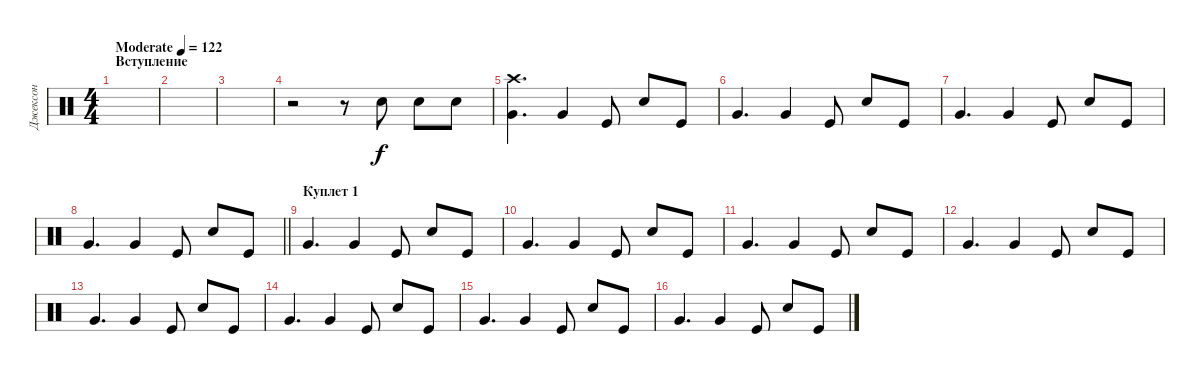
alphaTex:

\track ("Джексон" "Джексон") {instrument percussion}
\staff {score}
\articulation defaults
\ts (4 4)
\section ("" "Вступление")
\tempo (122 "Moderate")
\clef neutral
\ks c
|
|
|
r.2 r.8 "Snare (hit) 2".8 "Snare (hit) 2".8 "Snare (hit) 2".8 |
("Crash high (hit)" "Very Low Tom (hit)").4{d} "Very Low Tom (hit)".4 "Kick (hit)".8 "Snare (hit) 2".8 "Kick (hit)".8 |
"Very Low Tom (hit)".4{d} "Very Low Tom (hit)".4 "Kick (hit)".8 "Snare (hit) 2".8 "Kick (hit)".8 |
"Very Low Tom (hit)".4{d} "Very Low Tom (hit)".4 "Kick (hit)".8 "Snare (hit) 2".8 "Kick (hit)".8 |
\barLineRight lightlight "Very Low Tom (hit)".4{d} "Very Low Tom (hit)".4 "Kick (hit)".8 "Snare (hit) 2".8 "Kick (hit)".8
|
\section ("" "Куплет 1")
"Very Low Tom (hit)".4{d} "Very Low Tom (hit)".4 "Kick (hit)".8 "Snare (hit) 2".8 "Kick (hit)".8 |
"Very Low Tom (hit)".4{d} "Very Low Tom (hit)".4 "Kick (hit)".8 "Snare (hit) 2".8 "Kick (hit)".8 |
"Very Low Tom (hit)".4{d} "Very Low Tom (hit)".4 "Kick (hit)".8 "Snare (hit) 2".8 "Kick (hit)".8 |
"Very Low Tom (hit)".4{d} "Very Low Tom (hit)".4 "Kick (hit)".8 "Snare (hit) 2".8 "Kick (hit)".8 |
"Very Low Tom (hit)".4{d} "Very Low Tom (hit)".4 "Kick (hit)".8 "Snare (hit) 2".8 "Kick (hit)".8 |
"Very Low Tom (hit)".4{d} "Very Low Tom (hit)".4 "Kick (hit)".8 "Snare (hit) 2".8 "Kick (hit)".8 |
"Very Low Tom (hit)".4{d} "Very Low Tom (hit)".4 "Kick (hit)".8 "Snare (hit) 2".8 "Kick (hit)".8 |
"Very Low Tom (hit)".4{d} "Very Low Tom (hit)".4 "Kick (hit)".8 "Snare (hit) 2".8 "Kick (hit)".8
